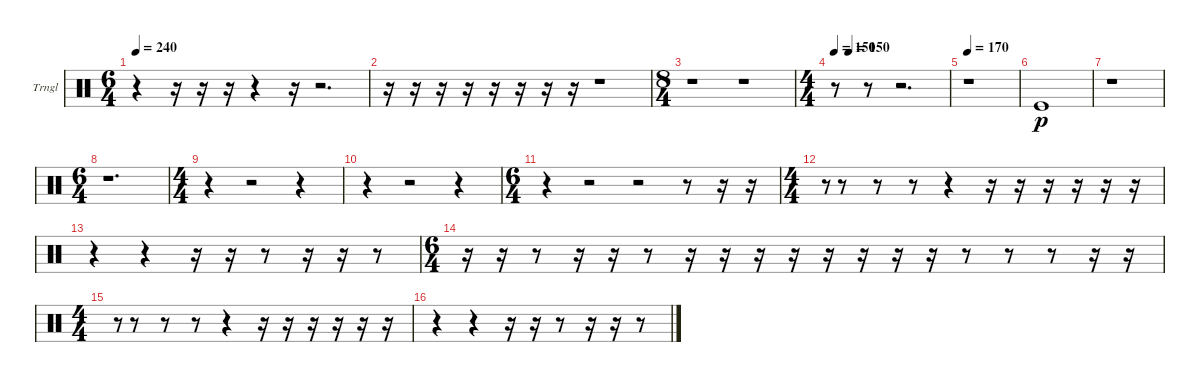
\bracketExtendMode groupsimilarinstruments
\firstSystemTrackNameOrientation horizontal
\otherSystemsTrackNameOrientation horizontal
\track ("Triangle" "Trngl") {instrument percussion}
\staff {score}
\articulation defaults
\ts (6 4)
\tempo 240
\clef neutral
\ks c
r.4{dy mf} r.16 r.16 r.16 r.4 r.16 r.2{d} |
r.16 r.16 r.16 r.16 r.16 r.16 r.16 r.16 r.1 |
\ts (8 4)
\beaming (8 4 4 4 4)
r.1 r.1 |
\ts (4 4)
\beaming (8 2 2 2 2)
\tempo 150
\tempo (150 0.125)
r.8 r.8 r.2{d} |
\tempo 170
r.1 |
"Kick (hit)".1{dy p} |
r.1 |
\ts (6 4)
\beaming (8 2 2 2 6)
r.1{d} |
\ts (4 4)
\beaming (8 2 2 2 2)
r.4 r.2 r.4 |
r.4 r.2 r.4 |
\ts (6 4)
\beaming (8 2 2 2 6)
r.4 r.2 r.2 r.8 r.16 r.16 |
\ts (4 4)
\beaming (8 2 2 2 2)
r.8{gr} r.8 r.8 r.8 r.4 r.16 r.16 r.16 r.16 r.16 r.16 |
r.4 r.4 r.16 r.16 r.8 r.16 r.16 r.8 |
\ts (6 4)
\beaming (8 2 2 2 6)
r.16 r.16 r.8 r.16 r.16 r.8 r.16 r.16 r.16 r.16 r.16 r.16 r.16 r.16 r.8 r.8 r.8 r.16 r.16 |
\ts (4 4)
\beaming (8 2 2 2 2)
r.8{gr} r.8 r.8 r.8 r.4 r.16 r.16 r.16 r.16 r.16 r.16 |
r.4 r.4 r.16 r.16 r.8 r.16 r.16 r.8
